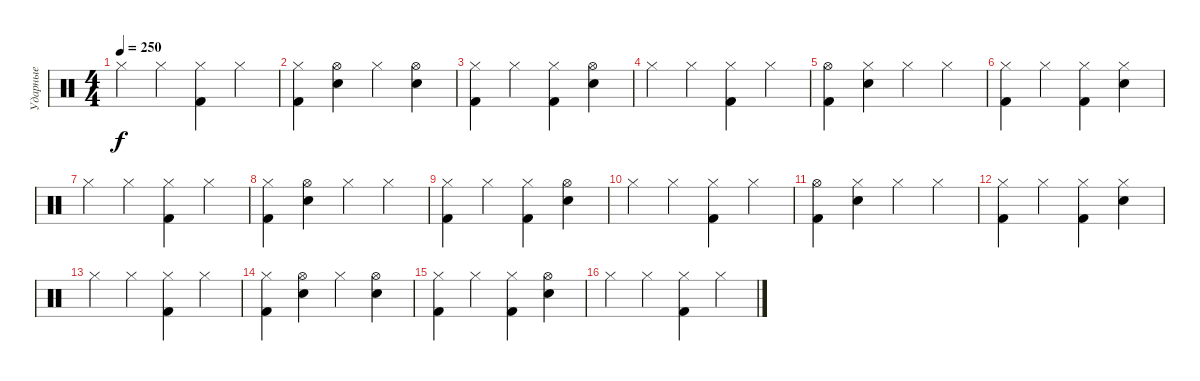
\track ("Ударные" "Ударные") {instrument percussion}
\staff {score}
\articulation defaults
\ts (4 4)
\tempo 250
\clef neutral
\ks c "Hi-Hat (closed)".4{dy f} "Hi-Hat (closed)".4
("Hi-Hat (closed)" "Kick (hit) 2").4 "Hi-Hat (closed)".4 |
("Hi-Hat (closed)" "Kick (hit) 2").4 ("Snare (hit) 2" "Hi-Hat (open)").4 "Hi-Hat (closed)".4 ("Snare (hit) 2" "Hi-Hat (open)").4 |
("Hi-Hat (closed)" "Kick (hit) 2").4 "Hi-Hat (closed)".4 ("Hi-Hat (closed)" "Kick (hit) 2").4 ("Snare (hit) 2" "Hi-Hat (open)").4 |
"Hi-Hat (closed)".4 "Hi-Hat (closed)".4 ("Hi-Hat (closed)" "Kick (hit) 2").4 "Hi-Hat (closed)".4 |
("Hi-Hat (open)" "Kick (hit) 2").4 ("Snare (hit) 2" "Hi-Hat (closed)").4 "Hi-Hat (closed)".4 "Hi-Hat (closed)".4 |
("Hi-Hat (closed)" "Kick (hit) 2").4 "Hi-Hat (closed)".4 ("Hi-Hat (closed)" "Kick (hit) 2").4 ("Snare (hit) 2" "Hi-Hat (closed)").4 |
"Hi-Hat (closed)".4 "Hi-Hat (closed)".4 ("Hi-Hat (closed)" "Kick (hit) 2").4 "Hi-Hat (closed)".4 |
("Hi-Hat (closed)" "Kick (hit) 2").4 ("Snare (hit) 2" "Hi-Hat (open)").4 "Hi-Hat (closed)".4 "Hi-Hat (closed)".4 |
("Hi-Hat (closed)" "Kick (hit) 2").4 "Hi-Hat (closed)".4 ("Hi-Hat (closed)" "Kick (hit) 2").4 ("Snare (hit) 2" "Hi-Hat (open)").4 |
"Hi-Hat (closed)".4 "Hi-Hat (closed)".4 ("Hi-Hat (closed)" "Kick (hit) 2").4 "Hi-Hat (closed)".4 |
("Hi-Hat (open)" "Kick (hit) 2").4 ("Snare (hit) 2" "Hi-Hat (closed)").4 "Hi-Hat (closed)".4 "Hi-Hat (closed)".4 |
("Hi-Hat (closed)" "Kick (hit) 2").4 "Hi-Hat (closed)".4 ("Hi-Hat (closed)" "Kick (hit) 2").4 ("Snare (hit) 2" "Hi-Hat (closed)").4 |
"Hi-Hat (closed)".4 "Hi-Hat (closed)".4 ("Hi-Hat (closed)" "Kick (hit) 2").4 "Hi-Hat (closed)".4 |
("Hi-Hat (closed)" "Kick (hit) 2").4 ("Snare (hit) 2" "Hi-Hat (open)").4 "Hi-Hat (closed)".4 ("Snare (hit) 2" "Hi-Hat (open)").4 |
("Hi-Hat (closed)" "Kick (hit) 2").4 "Hi-Hat (closed)".4 ("Hi-Hat (closed)" "Kick (hit) 2").4 ("Snare (hit) 2" "Hi-Hat (open)").4 |
"Hi-Hat (closed)".4 "Hi-Hat (closed)".4 ("Hi-Hat (closed)" "Kick (hit) 2").4 "Hi-Hat (closed)".4
